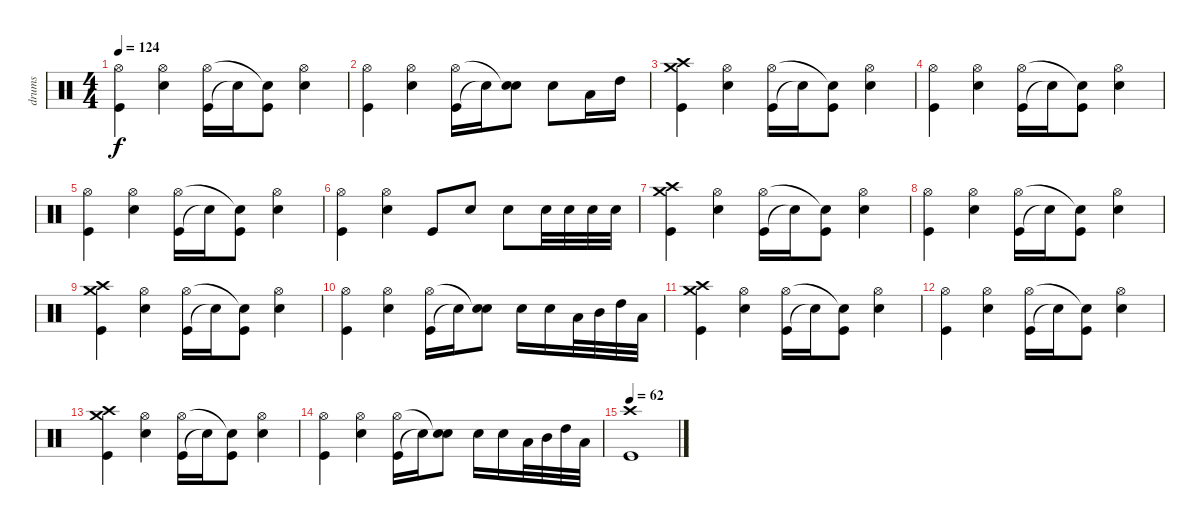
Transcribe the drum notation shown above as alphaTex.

\track ("drums" "drums") {instrument percussion}
\staff {score}
\articulation defaults
\ts (4 4)
\tempo 124
\clef neutral
\ks c
("Kick (hit)" "Hi-Hat (open)").4{dy f} ("Snare (hit) 2" "Hi-Hat (open)").4 ("Kick (hit)" "Hi-Hat (open)").16 "Snare (hit)"{t}.16 ("Kick (hit)" "Snare (hit)"{t}).8 ("Snare (hit) 2" "Hi-Hat (open)").4 |
("Kick (hit)" "Hi-Hat (open)").4 ("Snare (hit) 2" "Hi-Hat (open)").4 ("Kick (hit)" "Hi-Hat (open)").16 "Snare (hit)"{t}.16 ("Snare (hit) 2" "Snare (hit)"{t}).8 "Snare (hit) 2".8 "Low Tom (hit)".16 "High Tom (hit)".16 |
("Kick (hit)" "Crash medium (hit)" "Crash high (hit)").4 ("Snare (hit) 2" "Hi-Hat (open)").4 ("Kick (hit)" "Hi-Hat (open)").16 "Snare (hit)"{t}.16 ("Kick (hit)" "Snare (hit)"{t}).8 ("Snare (hit) 2" "Hi-Hat (open)").4 |
("Kick (hit)" "Hi-Hat (open)").4 ("Snare (hit) 2" "Hi-Hat (open)").4 ("Kick (hit)" "Hi-Hat (open)").16 "Snare (hit)"{t}.16 ("Kick (hit)" "Snare (hit)"{t}).8 ("Snare (hit) 2" "Hi-Hat (open)").4 |
("Kick (hit)" "Hi-Hat (open)").4 ("Snare (hit) 2" "Hi-Hat (open)").4 ("Kick (hit)" "Hi-Hat (open)").16 "Snare (hit)"{t}.16 ("Kick (hit)" "Snare (hit)"{t}).8 ("Snare (hit) 2" "Hi-Hat (open)").4 |
("Kick (hit)" "Hi-Hat (open)").4 ("Snare (hit) 2" "Hi-Hat (open)").4 "Kick (hit)".8 "Snare (hit) 2".8 "Snare (hit) 2".8 "Snare (hit) 2".32 "Snare (hit) 2".32 "Snare (hit) 2".32 "Snare (hit) 2".32 |
("Kick (hit)" "Crash medium (hit)" "Crash high (hit)").4 ("Snare (hit) 2" "Hi-Hat (open)").4 ("Kick (hit)" "Hi-Hat (open)").16 "Snare (hit)"{t}.16 ("Kick (hit)" "Snare (hit)"{t}).8 ("Snare (hit) 2" "Hi-Hat (open)").4 |
("Kick (hit)" "Hi-Hat (open)").4 ("Snare (hit) 2" "Hi-Hat (open)").4 ("Kick (hit)" "Hi-Hat (open)").16 "Snare (hit)"{t}.16 ("Kick (hit)" "Snare (hit)"{t}).8 ("Snare (hit) 2" "Hi-Hat (open)").4 |
("Kick (hit)" "Crash medium (hit)" "Crash high (hit)").4 ("Snare (hit) 2" "Hi-Hat (open)").4 ("Kick (hit)" "Hi-Hat (open)").16 "Snare (hit)"{t}.16 ("Kick (hit)" "Snare (hit)"{t}).8 ("Snare (hit) 2" "Hi-Hat (open)").4 |
("Kick (hit)" "Hi-Hat (open)").4 ("Snare (hit) 2" "Hi-Hat (open)").4 ("Kick (hit)" "Hi-Hat (open)").16 "Snare (hit)"{t}.16 ("Snare (hit) 2" "Snare (hit)"{t}).8 "Snare (hit) 2".16 "Snare (hit) 2".16 "Low Tom (hit)".32 "Mid Tom (hit)".32 "High Tom (hit)".32 "Low Floor Tom (hit)".32 |
("Kick (hit)" "Crash medium (hit)" "Crash high (hit)").4 ("Snare (hit) 2" "Hi-Hat (open)").4 ("Kick (hit)" "Hi-Hat (open)").16 "Snare (hit)"{t}.16 ("Kick (hit)" "Snare (hit)"{t}).8 ("Snare (hit) 2" "Hi-Hat (open)").4 |
("Kick (hit)" "Hi-Hat (open)").4 ("Snare (hit) 2" "Hi-Hat (open)").4 ("Kick (hit)" "Hi-Hat (open)").16 "Snare (hit)"{t}.16 ("Kick (hit)" "Snare (hit)"{t}).8 ("Snare (hit) 2" "Hi-Hat (open)").4 |
("Kick (hit)" "Crash medium (hit)" "Crash high (hit)").4 ("Snare (hit) 2" "Hi-Hat (open)").4 ("Kick (hit)" "Hi-Hat (open)").16 "Snare (hit)"{t}.16 ("Kick (hit)" "Snare (hit)"{t}).8 ("Snare (hit) 2" "Hi-Hat (open)").4 |
("Kick (hit)" "Hi-Hat (open)").4 ("Snare (hit) 2" "Hi-Hat (open)").4 ("Kick (hit)" "Hi-Hat (open)").16 "Snare (hit)"{t}.16 ("Snare (hit) 2" "Snare (hit)"{t}).8 "Snare (hit) 2".16 "Snare (hit) 2".16 "Low Tom (hit)".32 "Mid Tom (hit)".32 "High Tom (hit)".32 "Low Floor Tom (hit)".32 |
\tempo 62
("Kick (hit)" "Crash high (hit)").1
